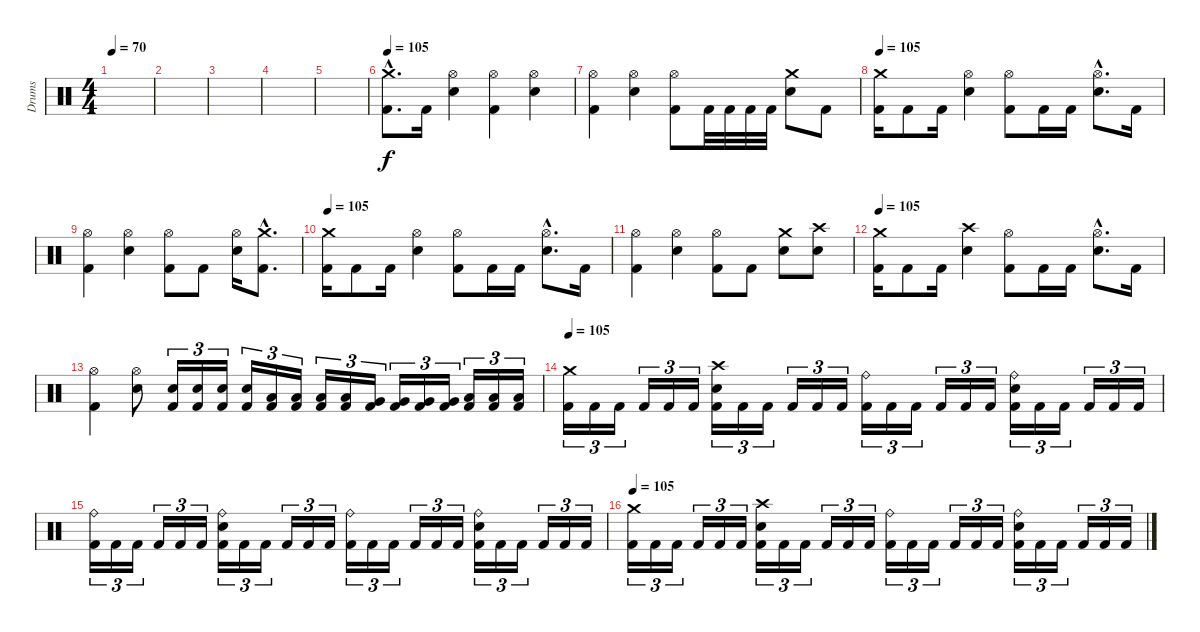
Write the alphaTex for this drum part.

\track ("Drums" "Drums") {instrument percussion}
\staff {score}
\articulation defaults
\ts (4 4)
\tempo 70
\clef neutral
\ks c
|
|
|
|
|
\tempo 105
("Crash medium (hit)"{hac} "Kick (hit) 2"{hac}).8{d dy f} "Kick (hit) 2".16 ("Hi-Hat (open)" "Snare (hit) 2").4 ("Hi-Hat (open)" "Kick (hit) 2").4 ("Hi-Hat (open)" "Snare (hit) 2").4 |
("Hi-Hat (open)" "Kick (hit) 2").4 ("Hi-Hat (open)" "Snare (hit) 2").4 ("Hi-Hat (open)" "Kick (hit) 2").8 "Kick (hit) 2".32 "Kick (hit) 2".32 "Kick (hit) 2".32 "Kick (hit) 2".32 ("Crash medium (hit)" "Snare (hit) 2").8 "Kick (hit) 2".8 |
\tempo 105
("Crash medium (hit)" "Kick (hit) 2").16 "Kick (hit) 2".8 "Kick (hit) 2".16 ("Hi-Hat (open)" "Snare (hit) 2").4 ("Hi-Hat (open)" "Kick (hit) 2").8 "Kick (hit) 2".16 "Kick (hit) 2".16 ("Hi-Hat (open)"{hac} "Snare (hit) 2"{hac}).8{d} "Kick (hit) 2".16 |
("Hi-Hat (open)" "Kick (hit) 2").4 ("Hi-Hat (open)" "Snare (hit) 2").4 ("Hi-Hat (open)" "Kick (hit) 2").8 "Kick (hit) 2".8 ("Hi-Hat (open)" "Snare (hit) 2").16 ("Crash medium (hit)"{hac} "Kick (hit) 2"{hac}).8{d} |
\tempo 105
("Crash medium (hit)" "Kick (hit) 2").16 "Kick (hit) 2".8 "Kick (hit) 2".16 ("Hi-Hat (open)" "Snare (hit) 2").4 ("Hi-Hat (open)" "Kick (hit) 2").8 "Kick (hit) 2".16 "Kick (hit) 2".16 ("Hi-Hat (open)"{hac} "Snare (hit) 2"{hac}).8{d} "Kick (hit) 2".16 |
("Hi-Hat (open)" "Kick (hit) 2").4 ("Hi-Hat (open)" "Snare (hit) 2").4 ("Hi-Hat (open)" "Kick (hit) 2").8 "Kick (hit) 2".8 ("Crash medium (hit)" "Snare (hit) 2").8 ("Crash high (hit)" "Snare (hit) 2").8 |
\tempo 105
("Crash medium (hit)" "Kick (hit) 2").16 "Kick (hit) 2".8 "Kick (hit) 2".16 ("Crash high (hit)" "Snare (hit) 2").4 ("Hi-Hat (open)" "Kick (hit) 2").8 "Kick (hit) 2".16 "Kick (hit) 2".16 ("Hi-Hat (open)"{hac} "Snare (hit) 2"{hac}).8{d} "Kick (hit) 2".16 |
("Hi-Hat (open)" "Kick (hit) 2").4 ("Hi-Hat (open)" "Snare (hit) 2").8 ("Snare (hit) 2" "Kick (hit) 2").16{tu (3 2)} ("Snare (hit) 2" "Kick (hit) 2").16{tu (3 2)} ("Snare (hit) 2" "Kick (hit) 2").16{tu (3 2)} ("Snare (hit) 2" "Kick (hit) 2").16{tu (3 2)} ("Low Tom (hit)" "Kick (hit) 2").16{tu (3 2)} ("Low Tom (hit)" "Kick (hit) 2").16{tu (3 2)} ("Low Tom (hit)" "Kick (hit) 2").16{tu (3 2)} ("Low Tom (hit)" "Kick (hit) 2").16{tu (3 2)} ("Very Low Tom (hit)" "Kick (hit) 2").16{tu (3 2)} ("Very Low Tom (hit)" "Kick (hit) 2").16{tu (3 2)} ("Very Low Tom (hit)" "Kick (hit) 2").16{tu (3 2)} ("Very Low Tom (hit)" "Kick (hit) 2").16{tu (3 2)} ("Low Floor Tom (hit)" "Kick (hit) 2").16{tu (3 2)} ("Low Floor Tom (hit)" "Kick (hit) 2").16{tu (3 2)} ("Low Floor Tom (hit)" "Kick (hit) 2").16{tu (3 2)} |
\tempo 105
("Crash medium (hit)" "Kick (hit) 2").16{tu (3 2)} "Kick (hit) 2".16{tu (3 2)} "Kick (hit) 2".16{tu (3 2)} "Kick (hit) 2".16{tu (3 2)} "Kick (hit) 2".16{tu (3 2)} "Kick (hit) 2".16{tu (3 2)} ("Crash high (hit)" "Snare (hit) 2" "Kick (hit) 2").16{tu (3 2)} "Kick (hit) 2".16{tu (3 2)} "Kick (hit) 2".16{tu (3 2)} "Kick (hit) 2".16{tu (3 2)} "Kick (hit) 2".16{tu (3 2)} "Kick (hit) 2".16{tu (3 2)} ("Ride (bell)" "Kick (hit) 2").16{tu (3 2)} "Kick (hit) 2".16{tu (3 2)} "Kick (hit) 2".16{tu (3 2)} "Kick (hit) 2".16{tu (3 2)} "Kick (hit) 2".16{tu (3 2)} "Kick (hit) 2".16{tu (3 2)} ("Ride (bell)" "Snare (hit) 2" "Kick (hit) 2").16{tu (3 2)} "Kick (hit) 2".16{tu (3 2)} "Kick (hit) 2".16{tu (3 2)} "Kick (hit) 2".16{tu (3 2)} "Kick (hit) 2".16{tu (3 2)} "Kick (hit) 2".16{tu (3 2)} |
("Ride (bell)" "Kick (hit) 2").16{tu (3 2)} "Kick (hit) 2".16{tu (3 2)} "Kick (hit) 2".16{tu (3 2)} "Kick (hit) 2".16{tu (3 2)} "Kick (hit) 2".16{tu (3 2)} "Kick (hit) 2".16{tu (3 2)} ("Ride (bell)" "Snare (hit) 2" "Kick (hit) 2").16{tu (3 2)} "Kick (hit) 2".16{tu (3 2)} "Kick (hit) 2".16{tu (3 2)} "Kick (hit) 2".16{tu (3 2)} "Kick (hit) 2".16{tu (3 2)} "Kick (hit) 2".16{tu (3 2)} ("Ride (bell)" "Kick (hit) 2").16{tu (3 2)} "Kick (hit) 2".16{tu (3 2)} "Kick (hit) 2".16{tu (3 2)} "Kick (hit) 2".16{tu (3 2)} "Kick (hit) 2".16{tu (3 2)} "Kick (hit) 2".16{tu (3 2)} ("Ride (bell)" "Snare (hit) 2" "Kick (hit) 2").16{tu (3 2)} "Kick (hit) 2".16{tu (3 2)} "Kick (hit) 2".16{tu (3 2)} "Kick (hit) 2".16{tu (3 2)} "Kick (hit) 2".16{tu (3 2)} "Kick (hit) 2".16{tu (3 2)} |
\tempo 105
("Crash medium (hit)" "Kick (hit) 2").16{tu (3 2)} "Kick (hit) 2".16{tu (3 2)} "Kick (hit) 2".16{tu (3 2)} "Kick (hit) 2".16{tu (3 2)} "Kick (hit) 2".16{tu (3 2)} "Kick (hit) 2".16{tu (3 2)} ("Crash high (hit)" "Snare (hit) 2" "Kick (hit) 2").16{tu (3 2)} "Kick (hit) 2".16{tu (3 2)} "Kick (hit) 2".16{tu (3 2)} "Kick (hit) 2".16{tu (3 2)} "Kick (hit) 2".16{tu (3 2)} "Kick (hit) 2".16{tu (3 2)} ("Ride (bell)" "Kick (hit) 2").16{tu (3 2)} "Kick (hit) 2".16{tu (3 2)} "Kick (hit) 2".16{tu (3 2)} "Kick (hit) 2".16{tu (3 2)} "Kick (hit) 2".16{tu (3 2)} "Kick (hit) 2".16{tu (3 2)} ("Ride (bell)" "Snare (hit) 2" "Kick (hit) 2").16{tu (3 2)} "Kick (hit) 2".16{tu (3 2)} "Kick (hit) 2".16{tu (3 2)} "Kick (hit) 2".16{tu (3 2)} "Kick (hit) 2".16{tu (3 2)} "Kick (hit) 2".16{tu (3 2)}
